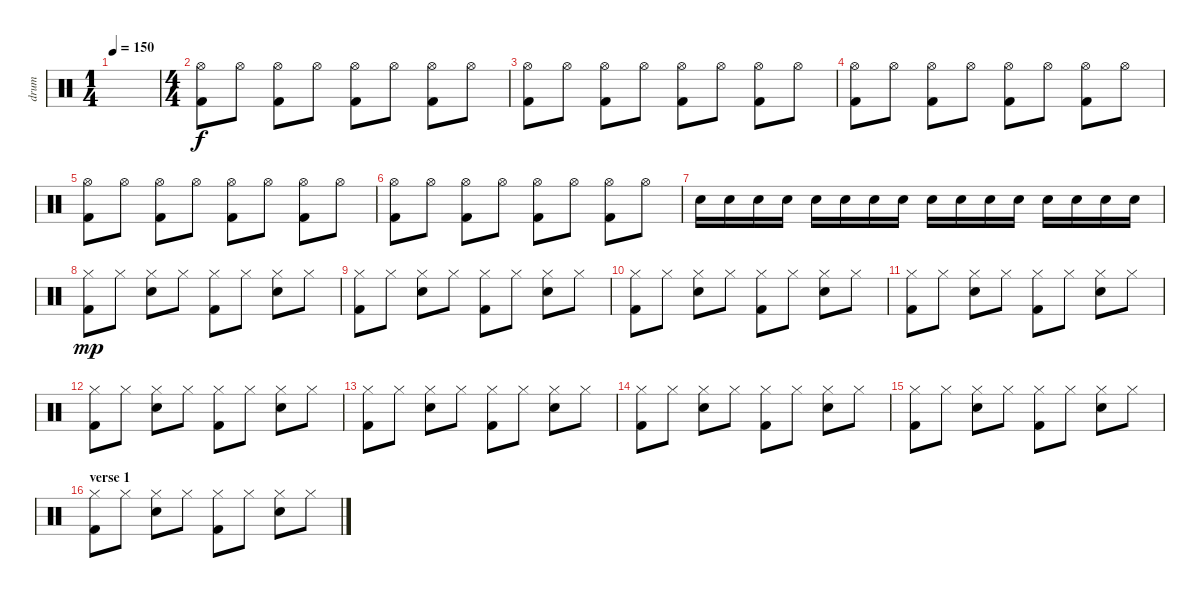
\track ("drum" "drum") {instrument percussion}
\staff {score}
\articulation defaults
\ts (1 4)
\tempo 150
\clef neutral
\ks c
|
\ts (4 4)
("Hi-Hat (open)" "Kick (hit) 2").8 "Hi-Hat (open)".8 ("Hi-Hat (open)" "Kick (hit) 2").8 "Hi-Hat (open)".8 ("Hi-Hat (open)" "Kick (hit) 2").8 "Hi-Hat (open)".8 ("Hi-Hat (open)" "Kick (hit) 2").8 "Hi-Hat (open)".8 |
("Hi-Hat (open)" "Kick (hit) 2").8 "Hi-Hat (open)".8 ("Hi-Hat (open)" "Kick (hit) 2").8 "Hi-Hat (open)".8 ("Hi-Hat (open)" "Kick (hit) 2").8 "Hi-Hat (open)".8 ("Hi-Hat (open)" "Kick (hit) 2").8 "Hi-Hat (open)".8 |
("Hi-Hat (open)" "Kick (hit) 2").8 "Hi-Hat (open)".8 ("Hi-Hat (open)" "Kick (hit) 2").8 "Hi-Hat (open)".8 ("Hi-Hat (open)" "Kick (hit) 2").8 "Hi-Hat (open)".8 ("Hi-Hat (open)" "Kick (hit) 2").8 "Hi-Hat (open)".8 |
("Hi-Hat (open)" "Kick (hit) 2").8 "Hi-Hat (open)".8 ("Hi-Hat (open)" "Kick (hit) 2").8 "Hi-Hat (open)".8 ("Hi-Hat (open)" "Kick (hit) 2").8 "Hi-Hat (open)".8 ("Hi-Hat (open)" "Kick (hit) 2").8 "Hi-Hat (open)".8 |
("Hi-Hat (open)" "Kick (hit) 2").8 "Hi-Hat (open)".8 ("Hi-Hat (open)" "Kick (hit) 2").8 "Hi-Hat (open)".8 ("Hi-Hat (open)" "Kick (hit) 2").8 "Hi-Hat (open)".8 ("Hi-Hat (open)" "Kick (hit) 2").8 "Hi-Hat (open)".8 |
"Electric Snare (hit)".16{dy f} "Electric Snare (hit)".16 "Electric Snare (hit)".16 "Electric Snare (hit)".16 "Electric Snare (hit)".16 "Electric Snare (hit)".16 "Electric Snare (hit)".16 "Electric Snare (hit)".16 "Electric Snare (hit)".16 "Electric Snare (hit)".16 "Electric Snare (hit)".16 "Electric Snare (hit)".16 "Electric Snare (hit)".16 "Electric Snare (hit)".16 "Electric Snare (hit)".16 "Electric Snare (hit)".16 |
("Hi-Hat (closed)" "Kick (hit) 2").8{dy mp} "Hi-Hat (closed)".8 ("Hi-Hat (closed)" "Electric Snare (hit)").8 "Hi-Hat (closed)".8 ("Hi-Hat (closed)" "Kick (hit) 2").8 "Hi-Hat (closed)".8 ("Hi-Hat (closed)" "Electric Snare (hit)").8 "Hi-Hat (closed)".8 |
("Hi-Hat (closed)" "Kick (hit) 2").8 "Hi-Hat (closed)".8 ("Hi-Hat (closed)" "Electric Snare (hit)").8 "Hi-Hat (closed)".8 ("Hi-Hat (closed)" "Kick (hit) 2").8 "Hi-Hat (closed)".8 ("Hi-Hat (closed)" "Electric Snare (hit)").8 "Hi-Hat (closed)".8 |
("Hi-Hat (closed)" "Kick (hit) 2").8 "Hi-Hat (closed)".8 ("Hi-Hat (closed)" "Electric Snare (hit)").8 "Hi-Hat (closed)".8 ("Hi-Hat (closed)" "Kick (hit) 2").8 "Hi-Hat (closed)".8 ("Hi-Hat (closed)" "Electric Snare (hit)").8 "Hi-Hat (closed)".8 |
("Hi-Hat (closed)" "Kick (hit) 2").8 "Hi-Hat (closed)".8 ("Hi-Hat (closed)" "Electric Snare (hit)").8 "Hi-Hat (closed)".8 ("Hi-Hat (closed)" "Kick (hit) 2").8 "Hi-Hat (closed)".8 ("Hi-Hat (closed)" "Electric Snare (hit)").8 "Hi-Hat (closed)".8 |
("Hi-Hat (closed)" "Kick (hit) 2").8 "Hi-Hat (closed)".8 ("Hi-Hat (closed)" "Electric Snare (hit)").8 "Hi-Hat (closed)".8 ("Hi-Hat (closed)" "Kick (hit) 2").8 "Hi-Hat (closed)".8 ("Hi-Hat (closed)" "Electric Snare (hit)").8 "Hi-Hat (closed)".8 |
("Hi-Hat (closed)" "Kick (hit) 2").8 "Hi-Hat (closed)".8 ("Hi-Hat (closed)" "Electric Snare (hit)").8 "Hi-Hat (closed)".8 ("Hi-Hat (closed)" "Kick (hit) 2").8 "Hi-Hat (closed)".8 ("Hi-Hat (closed)" "Electric Snare (hit)").8 "Hi-Hat (closed)".8 |
("Hi-Hat (closed)" "Kick (hit) 2").8 "Hi-Hat (closed)".8 ("Hi-Hat (closed)" "Electric Snare (hit)").8 "Hi-Hat (closed)".8 ("Hi-Hat (closed)" "Kick (hit) 2").8 "Hi-Hat (closed)".8 ("Hi-Hat (closed)" "Electric Snare (hit)").8 "Hi-Hat (closed)".8 |
("Hi-Hat (closed)" "Kick (hit) 2").8 "Hi-Hat (closed)".8 ("Hi-Hat (closed)" "Electric Snare (hit)").8 "Hi-Hat (closed)".8 ("Hi-Hat (closed)" "Kick (hit) 2").8 "Hi-Hat (closed)".8 ("Hi-Hat (closed)" "Electric Snare (hit)").8 "Hi-Hat (closed)".8 |
\section ("" "verse 1")
("Hi-Hat (closed)" "Kick (hit) 2").8 "Hi-Hat (closed)".8 ("Hi-Hat (closed)" "Electric Snare (hit)").8 "Hi-Hat (closed)".8 ("Hi-Hat (closed)" "Kick (hit) 2").8 "Hi-Hat (closed)".8 ("Hi-Hat (closed)" "Electric Snare (hit)").8 "Hi-Hat (closed)".8
